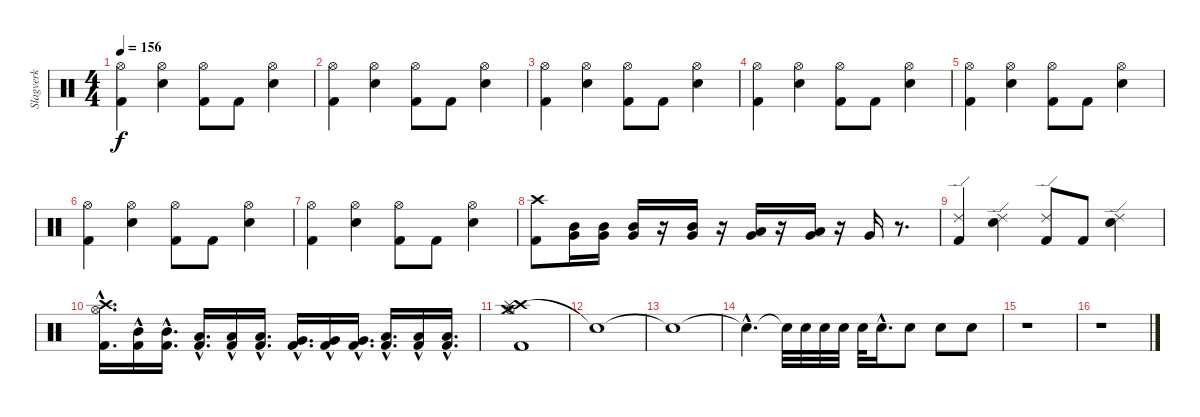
\track ("Slagverk" "Slagverk") {instrument percussion}
\staff {score}
\articulation defaults
\ts (4 4)
\tempo 156
\clef neutral
\ks c
("Hi-Hat (open)" "Kick (hit) 2").4{dy f} ("Hi-Hat (open)" "Snare (hit) 2").4 ("Hi-Hat (open)" "Kick (hit) 2").8 "Kick (hit) 2".8 ("Hi-Hat (open)" "Snare (hit) 2").4 |
("Hi-Hat (open)" "Kick (hit) 2").4 ("Hi-Hat (open)" "Snare (hit) 2").4 ("Hi-Hat (open)" "Kick (hit) 2").8 "Kick (hit) 2".8 ("Hi-Hat (open)" "Snare (hit) 2").4 |
("Hi-Hat (open)" "Kick (hit) 2").4 ("Hi-Hat (open)" "Snare (hit) 2").4 ("Hi-Hat (open)" "Kick (hit) 2").8 "Kick (hit) 2".8 ("Hi-Hat (open)" "Snare (hit) 2").4 |
("Hi-Hat (open)" "Kick (hit) 2").4 ("Hi-Hat (open)" "Snare (hit) 2").4 ("Hi-Hat (open)" "Kick (hit) 2").8 "Kick (hit) 2".8 ("Hi-Hat (open)" "Snare (hit) 2").4 |
("Hi-Hat (open)" "Kick (hit) 2").4 ("Hi-Hat (open)" "Snare (hit) 2").4 ("Hi-Hat (open)" "Kick (hit) 2").8 "Kick (hit) 2".8 ("Hi-Hat (open)" "Snare (hit) 2").4 |
("Hi-Hat (open)" "Kick (hit) 2").4 ("Hi-Hat (open)" "Snare (hit) 2").4 ("Hi-Hat (open)" "Kick (hit) 2").8 "Kick (hit) 2".8 ("Hi-Hat (open)" "Snare (hit) 2").4 |
("Hi-Hat (open)" "Kick (hit) 2").4 ("Hi-Hat (open)" "Snare (hit) 2").4 ("Hi-Hat (open)" "Kick (hit) 2").8 "Kick (hit) 2".8 ("Hi-Hat (open)" "Snare (hit) 2").4 |
("Crash high (hit)" "Kick (hit) 2").8 ("Very Low Tom (hit)" "Mid Tom (hit)").16 ("Very Low Tom (hit)" "Mid Tom (hit)").16 ("Very Low Tom (hit)" "Mid Tom (hit)").16 r.16 ("Very Low Tom (hit)" "Mid Tom (hit)").16 r.16 ("Very Low Tom (hit)" "Low Tom (hit)").16 r.16 ("Very Low Tom (hit)" "Low Tom (hit)").16 r.16 "Very Low Tom (hit)".16 r.8{d} |
("Ride (edge) 2" "Kick (hit) 2").4 ("Ride (edge) 2" "Snare (hit) 2").4 ("Ride (edge) 2" "Kick (hit) 2").8 "Kick (hit) 2".8 ("Ride (edge) 2" "Snare (hit) 2").4 |
("Hi-Hat (open)"{hac} "Crash high (hit)"{hac} "Kick (hit) 2"{hac}).16{d} ("Mid Tom (hit)"{hac} "Kick (hit) 2"{hac}).16 ("Mid Tom (hit)"{hac} "Kick (hit) 2"{hac}).16{d} ("Low Tom (hit)"{hac} "Kick (hit) 2"{hac}).16{d} ("Low Tom (hit)"{hac} "Kick (hit) 2"{hac}).16 ("Low Tom (hit)"{hac} "Kick (hit) 2"{hac}).16{d} ("Very Low Tom (hit)"{hac} "Kick (hit) 2"{hac}).16{d} ("Very Low Tom (hit)"{hac} "Kick (hit) 2"{hac}).16 ("Very Low Tom (hit)"{hac} "Kick (hit) 2"{hac}).16{d} ("Low Floor Tom (hit)"{hac} "Kick (hit) 2"{hac}).16{d} ("Low Floor Tom (hit)"{hac} "Kick (hit) 2"{hac}).16 ("Low Floor Tom (hit)"{hac} "Kick (hit) 2"{hac}).16{d} |
("Crash high (hit)" "Crash medium (hit)" "Splash (hit)" "Hi-Hat (open)" "Kick (hit) 2").1 |
"Snare (hit)"{t}.1 |
"Snare (hit)"{t}.1 |
"Snare (hit)"{hac t}.4{d} "Snare (hit)"{t}.32 "Snare (hit) 2".32{volume 4} "Snare (hit) 2".32{volume 4} "Snare (hit) 2".32{volume 5} "Snare (hit) 2".32{volume 6} "Snare (hit) 2"{hac}.16{d volume 7} "Snare (hit) 2".8{volume 9} "Snare (hit) 2".8{volume 12} "Snare (hit) 2".8 |
r.1 |
r.1
